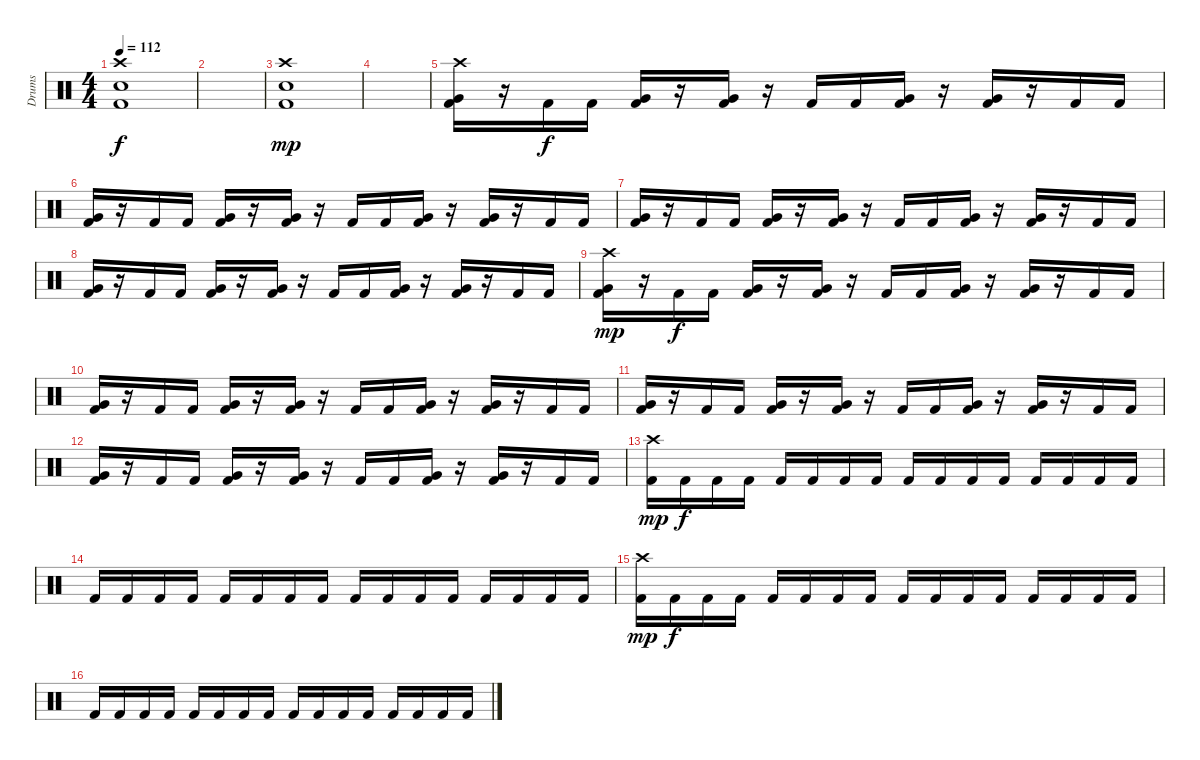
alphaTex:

\track ("Drums" "Drums") {instrument percussion}
\staff
\articulation defaults
\ts (4 4)
\tempo 112
\clef neutral
\ks c
("Crash high (hit)" "Snare (hit) 2" "Kick (hit) 2").1{dy f} |
|
("Crash high (hit)" "Snare (hit) 2" "Kick (hit) 2").1{dy mp} |
|
("Crash high (hit)" "Very Low Tom (hit)" "Kick (hit) 2").16 r.16 "Kick (hit) 2".16{dy f} "Kick (hit) 2".16 ("Very Low Tom (hit)" "Kick (hit) 2").16 r.16 ("Very Low Tom (hit)" "Kick (hit) 2").16 r.16 "Kick (hit) 2".16 "Kick (hit) 2".16 ("Very Low Tom (hit)" "Kick (hit) 2").16 r.16 ("Very Low Tom (hit)" "Kick (hit) 2").16 r.16 "Kick (hit) 2".16 "Kick (hit) 2".16 |
("Very Low Tom (hit)" "Kick (hit) 2").16 r.16 "Kick (hit) 2".16 "Kick (hit) 2".16 ("Very Low Tom (hit)" "Kick (hit) 2").16 r.16 ("Very Low Tom (hit)" "Kick (hit) 2").16 r.16 "Kick (hit) 2".16 "Kick (hit) 2".16 ("Very Low Tom (hit)" "Kick (hit) 2").16 r.16 ("Very Low Tom (hit)" "Kick (hit) 2").16 r.16 "Kick (hit) 2".16 "Kick (hit) 2".16 |
("Very Low Tom (hit)" "Kick (hit) 2").16 r.16 "Kick (hit) 2".16 "Kick (hit) 2".16 ("Very Low Tom (hit)" "Kick (hit) 2").16 r.16 ("Very Low Tom (hit)" "Kick (hit) 2").16 r.16 "Kick (hit) 2".16 "Kick (hit) 2".16 ("Very Low Tom (hit)" "Kick (hit) 2").16 r.16 ("Very Low Tom (hit)" "Kick (hit) 2").16 r.16 "Kick (hit) 2".16 "Kick (hit) 2".16 |
("Very Low Tom (hit)" "Kick (hit) 2").16 r.16 "Kick (hit) 2".16 "Kick (hit) 2".16 ("Very Low Tom (hit)" "Kick (hit) 2").16 r.16 ("Very Low Tom (hit)" "Kick (hit) 2").16 r.16 "Kick (hit) 2".16 "Kick (hit) 2".16 ("Very Low Tom (hit)" "Kick (hit) 2").16 r.16 ("Very Low Tom (hit)" "Kick (hit) 2").16 r.16 "Kick (hit) 2".16 "Kick (hit) 2".16 |
("Crash high (hit)" "Very Low Tom (hit)" "Kick (hit) 2").16{dy mp} r.16 "Kick (hit) 2".16{dy f} "Kick (hit) 2".16 ("Very Low Tom (hit)" "Kick (hit) 2").16 r.16 ("Very Low Tom (hit)" "Kick (hit) 2").16 r.16 "Kick (hit) 2".16 "Kick (hit) 2".16 ("Very Low Tom (hit)" "Kick (hit) 2").16 r.16 ("Very Low Tom (hit)" "Kick (hit) 2").16 r.16 "Kick (hit) 2".16 "Kick (hit) 2".16 |
("Very Low Tom (hit)" "Kick (hit) 2").16 r.16 "Kick (hit) 2".16 "Kick (hit) 2".16 ("Very Low Tom (hit)" "Kick (hit) 2").16 r.16 ("Very Low Tom (hit)" "Kick (hit) 2").16 r.16 "Kick (hit) 2".16 "Kick (hit) 2".16 ("Very Low Tom (hit)" "Kick (hit) 2").16 r.16 ("Very Low Tom (hit)" "Kick (hit) 2").16 r.16 "Kick (hit) 2".16 "Kick (hit) 2".16 |
("Very Low Tom (hit)" "Kick (hit) 2").16 r.16 "Kick (hit) 2".16 "Kick (hit) 2".16 ("Very Low Tom (hit)" "Kick (hit) 2").16 r.16 ("Very Low Tom (hit)" "Kick (hit) 2").16 r.16 "Kick (hit) 2".16 "Kick (hit) 2".16 ("Very Low Tom (hit)" "Kick (hit) 2").16 r.16 ("Very Low Tom (hit)" "Kick (hit) 2").16 r.16 "Kick (hit) 2".16 "Kick (hit) 2".16 |
("Very Low Tom (hit)" "Kick (hit) 2").16 r.16 "Kick (hit) 2".16 "Kick (hit) 2".16 ("Very Low Tom (hit)" "Kick (hit) 2").16 r.16 ("Very Low Tom (hit)" "Kick (hit) 2").16 r.16 "Kick (hit) 2".16 "Kick (hit) 2".16 ("Very Low Tom (hit)" "Kick (hit) 2").16 r.16 ("Very Low Tom (hit)" "Kick (hit) 2").16 r.16 "Kick (hit) 2".16 "Kick (hit) 2".16 |
("Crash high (hit)" "Kick (hit) 2").16{dy mp} "Kick (hit) 2".16{dy f} "Kick (hit) 2".16 "Kick (hit) 2".16 "Kick (hit) 2".16 "Kick (hit) 2".16 "Kick (hit) 2".16 "Kick (hit) 2".16 "Kick (hit) 2".16 "Kick (hit) 2".16 "Kick (hit) 2".16 "Kick (hit) 2".16 "Kick (hit) 2".16 "Kick (hit) 2".16 "Kick (hit) 2".16 "Kick (hit) 2".16 |
"Kick (hit) 2".16 "Kick (hit) 2".16 "Kick (hit) 2".16 "Kick (hit) 2".16 "Kick (hit) 2".16 "Kick (hit) 2".16 "Kick (hit) 2".16 "Kick (hit) 2".16 "Kick (hit) 2".16 "Kick (hit) 2".16 "Kick (hit) 2".16 "Kick (hit) 2".16 "Kick (hit) 2".16 "Kick (hit) 2".16 "Kick (hit) 2".16 "Kick (hit) 2".16 |
("Crash high (hit)" "Kick (hit) 2").16{dy mp} "Kick (hit) 2".16{dy f} "Kick (hit) 2".16 "Kick (hit) 2".16 "Kick (hit) 2".16 "Kick (hit) 2".16 "Kick (hit) 2".16 "Kick (hit) 2".16 "Kick (hit) 2".16 "Kick (hit) 2".16 "Kick (hit) 2".16 "Kick (hit) 2".16 "Kick (hit) 2".16 "Kick (hit) 2".16 "Kick (hit) 2".16 "Kick (hit) 2".16 |
"Kick (hit) 2".16 "Kick (hit) 2".16 "Kick (hit) 2".16 "Kick (hit) 2".16 "Kick (hit) 2".16 "Kick (hit) 2".16 "Kick (hit) 2".16 "Kick (hit) 2".16 "Kick (hit) 2".16 "Kick (hit) 2".16 "Kick (hit) 2".16 "Kick (hit) 2".16 "Kick (hit) 2".16 "Kick (hit) 2".16 "Kick (hit) 2".16 "Kick (hit) 2".16
